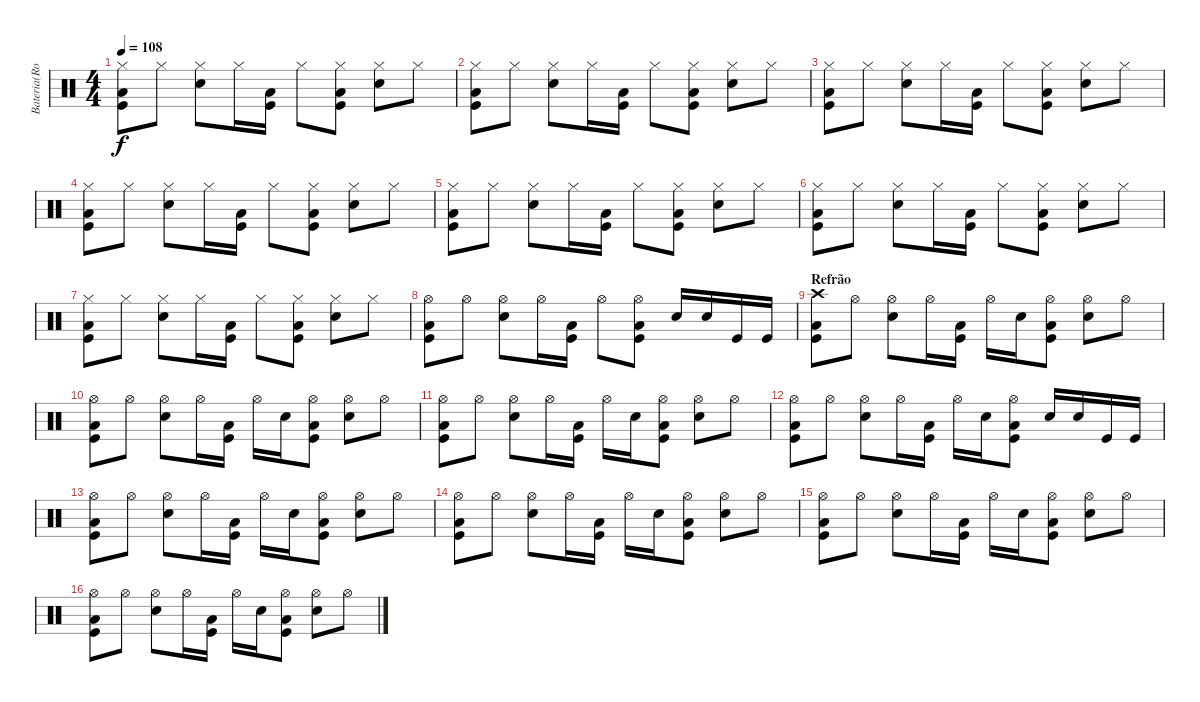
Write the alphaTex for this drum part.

\track ("Bateria(Rob)" "Bateria(Ro") {instrument percussion}
\staff {score}
\articulation defaults
\ts (4 4)
\tempo 108
\clef neutral
\ks c
("Hi-Hat (closed)" "Kick (hit)" "Low Tom (hit)").8{dy f} "Hi-Hat (closed)".8 ("Hi-Hat (closed)" "Snare (hit) 2").8 "Hi-Hat (closed)".16 ("Kick (hit)" "Low Tom (hit)").16 "Hi-Hat (closed)".8 ("Hi-Hat (closed)" "Kick (hit)" "Low Tom (hit)").8 ("Hi-Hat (closed)" "Snare (hit) 2").8 "Hi-Hat (closed)".8 |
("Hi-Hat (closed)" "Kick (hit)" "Low Tom (hit)").8 "Hi-Hat (closed)".8 ("Hi-Hat (closed)" "Snare (hit) 2").8 "Hi-Hat (closed)".16 ("Kick (hit)" "Low Tom (hit)").16 "Hi-Hat (closed)".8 ("Hi-Hat (closed)" "Kick (hit)" "Low Tom (hit)").8 ("Hi-Hat (closed)" "Snare (hit) 2").8 "Hi-Hat (closed)".8 |
("Hi-Hat (closed)" "Kick (hit)" "Low Tom (hit)").8 "Hi-Hat (closed)".8 ("Hi-Hat (closed)" "Snare (hit) 2").8 "Hi-Hat (closed)".16 ("Kick (hit)" "Low Tom (hit)").16 "Hi-Hat (closed)".8 ("Hi-Hat (closed)" "Kick (hit)" "Low Tom (hit)").8 ("Hi-Hat (closed)" "Snare (hit) 2").8 "Hi-Hat (closed)".8 |
("Hi-Hat (closed)" "Kick (hit)" "Low Tom (hit)").8 "Hi-Hat (closed)".8 ("Hi-Hat (closed)" "Snare (hit) 2").8 "Hi-Hat (closed)".16 ("Kick (hit)" "Low Tom (hit)").16 "Hi-Hat (closed)".8 ("Hi-Hat (closed)" "Kick (hit)" "Low Tom (hit)").8 ("Hi-Hat (closed)" "Snare (hit) 2").8 "Hi-Hat (closed)".8 |
("Hi-Hat (closed)" "Kick (hit)" "Low Tom (hit)").8 "Hi-Hat (closed)".8 ("Hi-Hat (closed)" "Snare (hit) 2").8 "Hi-Hat (closed)".16 ("Kick (hit)" "Low Tom (hit)").16 "Hi-Hat (closed)".8 ("Hi-Hat (closed)" "Kick (hit)" "Low Tom (hit)").8 ("Hi-Hat (closed)" "Snare (hit) 2").8 "Hi-Hat (closed)".8 |
("Hi-Hat (closed)" "Kick (hit)" "Low Tom (hit)").8 "Hi-Hat (closed)".8 ("Hi-Hat (closed)" "Snare (hit) 2").8 "Hi-Hat (closed)".16 ("Kick (hit)" "Low Tom (hit)").16 "Hi-Hat (closed)".8 ("Hi-Hat (closed)" "Kick (hit)" "Low Tom (hit)").8 ("Hi-Hat (closed)" "Snare (hit) 2").8 "Hi-Hat (closed)".8 |
("Hi-Hat (closed)" "Kick (hit)" "Low Tom (hit)").8 "Hi-Hat (closed)".8 ("Hi-Hat (closed)" "Snare (hit) 2").8 "Hi-Hat (closed)".16 ("Kick (hit)" "Low Tom (hit)").16 "Hi-Hat (closed)".8 ("Hi-Hat (closed)" "Kick (hit)" "Low Tom (hit)").8 ("Hi-Hat (closed)" "Snare (hit) 2").8 "Hi-Hat (closed)".8 |
("Hi-Hat (open)" "Kick (hit)" "Low Tom (hit)").8 "Hi-Hat (open)".8 ("Hi-Hat (open)" "Snare (hit) 2").8 "Hi-Hat (open)".16 ("Kick (hit)" "Low Tom (hit)").16 "Hi-Hat (open)".8 ("Hi-Hat (open)" "Kick (hit)" "Low Tom (hit)").8 "Snare (hit) 2".16 "Snare (hit) 2".16 "Kick (hit)".16 "Kick (hit)".16 |
\section ("" "Refrão")
("Crash high (hit)" "Kick (hit)" "Low Tom (hit)").8 "Hi-Hat (open)".8 ("Hi-Hat (open)" "Snare (hit) 2").8 "Hi-Hat (open)".16 ("Kick (hit)" "Low Tom (hit)").16 "Hi-Hat (open)".16 "Snare (hit) 2".16 ("Hi-Hat (open)" "Kick (hit)" "Low Tom (hit)").8 ("Hi-Hat (open)" "Snare (hit) 2").8 "Hi-Hat (open)".8 |
("Hi-Hat (open)" "Kick (hit)" "Low Tom (hit)").8 "Hi-Hat (open)".8 ("Hi-Hat (open)" "Snare (hit) 2").8 "Hi-Hat (open)".16 ("Kick (hit)" "Low Tom (hit)").16 "Hi-Hat (open)".16 "Snare (hit) 2".16 ("Hi-Hat (open)" "Kick (hit)" "Low Tom (hit)").8 ("Hi-Hat (open)" "Snare (hit) 2").8 "Hi-Hat (open)".8 |
("Hi-Hat (open)" "Kick (hit)" "Low Tom (hit)").8 "Hi-Hat (open)".8 ("Hi-Hat (open)" "Snare (hit) 2").8 "Hi-Hat (open)".16 ("Kick (hit)" "Low Tom (hit)").16 "Hi-Hat (open)".16 "Snare (hit) 2".16 ("Hi-Hat (open)" "Kick (hit)" "Low Tom (hit)").8 ("Hi-Hat (open)" "Snare (hit) 2").8 "Hi-Hat (open)".8 |
("Hi-Hat (open)" "Kick (hit)" "Low Tom (hit)").8 "Hi-Hat (open)".8 ("Hi-Hat (open)" "Snare (hit) 2").8 "Hi-Hat (open)".16 ("Kick (hit)" "Low Tom (hit)").16 "Hi-Hat (open)".16 "Snare (hit) 2".16 ("Hi-Hat (open)" "Kick (hit)" "Low Tom (hit)").8 "Snare (hit) 2".16 "Snare (hit) 2".16 "Kick (hit)".16 "Kick (hit)".16 |
("Hi-Hat (open)" "Kick (hit)" "Low Tom (hit)").8 "Hi-Hat (open)".8 ("Hi-Hat (open)" "Snare (hit) 2").8 "Hi-Hat (open)".16 ("Kick (hit)" "Low Tom (hit)").16 "Hi-Hat (open)".16 "Snare (hit) 2".16 ("Hi-Hat (open)" "Kick (hit)" "Low Tom (hit)").8 ("Hi-Hat (open)" "Snare (hit) 2").8 "Hi-Hat (open)".8 |
("Hi-Hat (open)" "Kick (hit)" "Low Tom (hit)").8 "Hi-Hat (open)".8 ("Hi-Hat (open)" "Snare (hit) 2").8 "Hi-Hat (open)".16 ("Kick (hit)" "Low Tom (hit)").16 "Hi-Hat (open)".16 "Snare (hit) 2".16 ("Hi-Hat (open)" "Kick (hit)" "Low Tom (hit)").8 ("Hi-Hat (open)" "Snare (hit) 2").8 "Hi-Hat (open)".8 |
("Hi-Hat (open)" "Kick (hit)" "Low Tom (hit)").8 "Hi-Hat (open)".8 ("Hi-Hat (open)" "Snare (hit) 2").8 "Hi-Hat (open)".16 ("Kick (hit)" "Low Tom (hit)").16 "Hi-Hat (open)".16 "Snare (hit) 2".16 ("Hi-Hat (open)" "Kick (hit)" "Low Tom (hit)").8 ("Hi-Hat (open)" "Snare (hit) 2").8 "Hi-Hat (open)".8 |
("Hi-Hat (open)" "Kick (hit)" "Low Tom (hit)").8 "Hi-Hat (open)".8 ("Hi-Hat (open)" "Snare (hit) 2").8 "Hi-Hat (open)".16 ("Kick (hit)" "Low Tom (hit)").16 "Hi-Hat (open)".16 "Snare (hit) 2".16 ("Hi-Hat (open)" "Kick (hit)" "Low Tom (hit)").8 ("Hi-Hat (open)" "Snare (hit) 2").8 "Hi-Hat (open)".8
